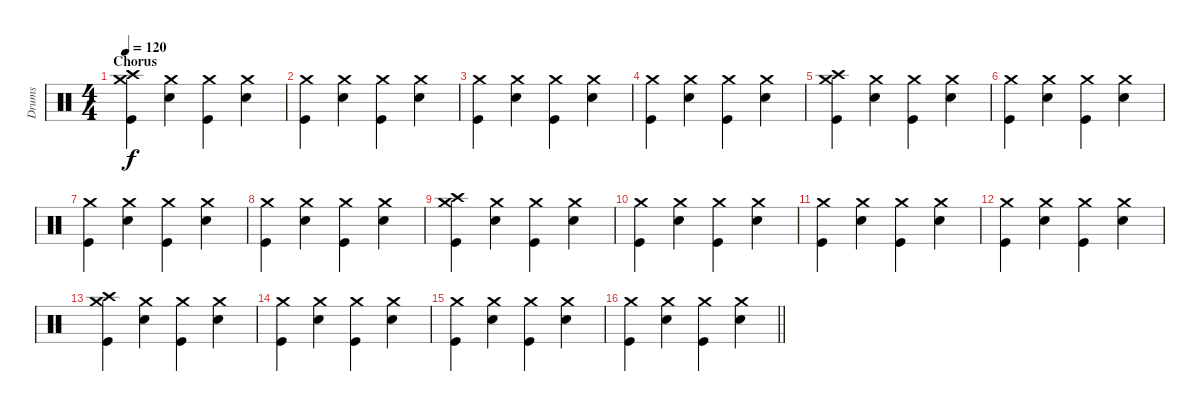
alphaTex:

\track ("Drums" "Drums") {instrument percussion}
\staff {score}
\articulation defaults
\ts (4 4)
\section ("" "Chorus")
\tempo 120
\clef neutral
\ks c
("Crash high (hit)" "Crash medium (hit)" "Kick (hit)").4{dy f} ("Crash medium (hit)" "Electric Snare (hit)").4 ("Crash medium (hit)" "Kick (hit)").4 ("Crash medium (hit)" "Electric Snare (hit)").4 |
("Crash medium (hit)" "Kick (hit)").4 ("Crash medium (hit)" "Electric Snare (hit)").4 ("Crash medium (hit)" "Kick (hit)").4 ("Crash medium (hit)" "Electric Snare (hit)").4 |
("Crash medium (hit)" "Kick (hit)").4 ("Crash medium (hit)" "Electric Snare (hit)").4 ("Crash medium (hit)" "Kick (hit)").4 ("Crash medium (hit)" "Electric Snare (hit)").4 |
("Crash medium (hit)" "Kick (hit)").4 ("Crash medium (hit)" "Electric Snare (hit)").4 ("Crash medium (hit)" "Kick (hit)").4 ("Crash medium (hit)" "Electric Snare (hit)").4 |
("Crash high (hit)" "Crash medium (hit)" "Kick (hit)").4 ("Crash medium (hit)" "Electric Snare (hit)").4 ("Crash medium (hit)" "Kick (hit)").4 ("Crash medium (hit)" "Electric Snare (hit)").4 |
("Crash medium (hit)" "Kick (hit)").4 ("Crash medium (hit)" "Electric Snare (hit)").4 ("Crash medium (hit)" "Kick (hit)").4 ("Crash medium (hit)" "Electric Snare (hit)").4 |
("Crash medium (hit)" "Kick (hit)").4 ("Crash medium (hit)" "Electric Snare (hit)").4 ("Crash medium (hit)" "Kick (hit)").4 ("Crash medium (hit)" "Electric Snare (hit)").4 |
("Crash medium (hit)" "Kick (hit)").4 ("Crash medium (hit)" "Electric Snare (hit)").4 ("Crash medium (hit)" "Kick (hit)").4 ("Crash medium (hit)" "Electric Snare (hit)").4 |
("Crash high (hit)" "Crash medium (hit)" "Kick (hit)").4 ("Crash medium (hit)" "Electric Snare (hit)").4 ("Crash medium (hit)" "Kick (hit)").4 ("Crash medium (hit)" "Electric Snare (hit)").4 |
("Crash medium (hit)" "Kick (hit)").4 ("Crash medium (hit)" "Electric Snare (hit)").4 ("Crash medium (hit)" "Kick (hit)").4 ("Crash medium (hit)" "Electric Snare (hit)").4 |
("Crash medium (hit)" "Kick (hit)").4 ("Crash medium (hit)" "Electric Snare (hit)").4 ("Crash medium (hit)" "Kick (hit)").4 ("Crash medium (hit)" "Electric Snare (hit)").4 |
("Crash medium (hit)" "Kick (hit)").4 ("Crash medium (hit)" "Electric Snare (hit)").4 ("Crash medium (hit)" "Kick (hit)").4 ("Crash medium (hit)" "Electric Snare (hit)").4 |
("Crash high (hit)" "Crash medium (hit)" "Kick (hit)").4 ("Crash medium (hit)" "Electric Snare (hit)").4 ("Crash medium (hit)" "Kick (hit)").4 ("Crash medium (hit)" "Electric Snare (hit)").4 |
("Crash medium (hit)" "Kick (hit)").4 ("Crash medium (hit)" "Electric Snare (hit)").4 ("Crash medium (hit)" "Kick (hit)").4 ("Crash medium (hit)" "Electric Snare (hit)").4 |
("Crash medium (hit)" "Kick (hit)").4 ("Crash medium (hit)" "Electric Snare (hit)").4 ("Crash medium (hit)" "Kick (hit)").4 ("Crash medium (hit)" "Electric Snare (hit)").4 |
\barLineRight lightlight
("Crash medium (hit)" "Kick (hit)").4 ("Crash medium (hit)" "Electric Snare (hit)").4 ("Crash medium (hit)" "Kick (hit)").4 ("Crash medium (hit)" "Electric Snare (hit)").4
